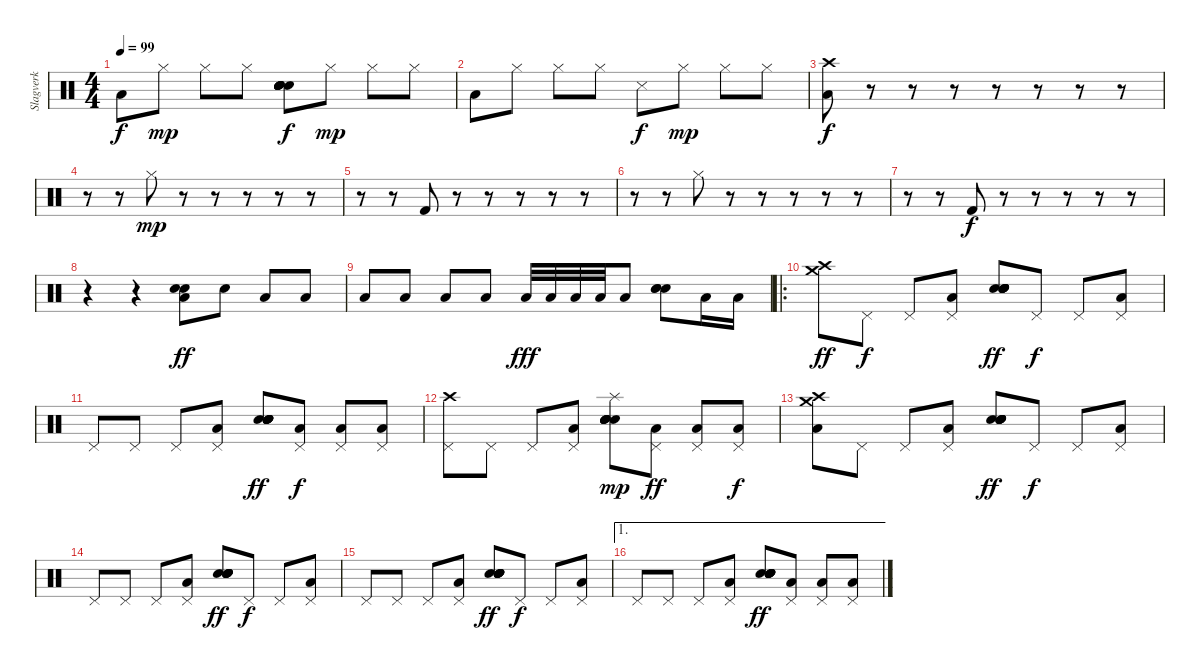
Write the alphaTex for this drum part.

\track ("Slagverk" "Slagverk") {instrument percussion}
\staff {score}
\articulation defaults
\ts (4 4)
\tempo 99
\clef neutral
\ks c "Low Tom (hit)".8{dy f} "Hi-Hat (closed)".8{dy mp} "Hi-Hat (closed)".8 "Hi-Hat (closed)".8
("Snare (hit) 2" "Snare (hit) 2" "Snare (hit) 2" "Snare (hit) 2" "Electric Snare (hit)" "Snare (hit) 2").8{dy f} "Hi-Hat (closed)".8{dy mp} "Hi-Hat (closed)".8 "Hi-Hat (closed)".8 |
"Low Tom (hit)".8 "Hi-Hat (closed)".8 "Hi-Hat (closed)".8 "Hi-Hat (closed)".8 "Snare (side stick) 3".8{dy f} "Hi-Hat (closed)".8{dy mp} "Hi-Hat (closed)".8 "Hi-Hat (closed)".8 |
("Crash high (hit)" "Low Floor Tom (hit)").8{dy f} r.8 r.8 r.8 r.8 r.8 r.8 r.8 |
r.8 r.8 "Hi-Hat (closed)".8{dy mp} r.8 r.8 r.8 r.8 r.8 |
r.8 r.8 "Kick (hit) 2".8 r.8 r.8 r.8 r.8 r.8 |
r.8 r.8 "Hi-Hat (closed)".8 r.8 r.8 r.8 r.8 r.8 |
r.8 r.8 "Kick (hit) 2".8{dy f} r.8 r.8 r.8 r.8 r.8 |
r.4 r.4 ("Snare (hit) 2" "Snare (hit) 2" "Low Floor Tom (hit)").8{dy ff} "Snare (hit) 2".8 "Low Floor Tom (hit)".8 "Low Floor Tom (hit)".8 |
"Low Floor Tom (hit)".8 "Low Floor Tom (hit)".8 "Low Floor Tom (hit)".8 "Low Floor Tom (hit)".8 "Low Floor Tom (hit)".32{dy fff} "Low Floor Tom (hit)".32 "Low Floor Tom (hit)".32 "Low Floor Tom (hit)".32 "Low Floor Tom (hit)".8 ("Snare (hit) 2" "Snare (hit) 2" "Electric Snare (hit)").8 "Low Floor Tom (hit)".16 "Low Floor Tom (hit)".16 |
\ro
("Crash medium (hit)" "Crash high (hit)").8{dy ff} "Pedal Hi-Hat (hit)".8{dy f} "Pedal Hi-Hat (hit)".8 ("Pedal Hi-Hat (hit)" "Low Floor Tom (hit)").8 ("Snare (hit) 2" "Snare (hit) 2" "Snare (hit) 2" "Snare (hit) 2" "Snare (hit) 2" "Electric Snare (hit)").8{dy ff} "Pedal Hi-Hat (hit)".8{dy f} "Pedal Hi-Hat (hit)".8 ("Pedal Hi-Hat (hit)" "Low Floor Tom (hit)").8 |
"Pedal Hi-Hat (hit)".8 "Pedal Hi-Hat (hit)".8 "Pedal Hi-Hat (hit)".8 ("Pedal Hi-Hat (hit)" "Low Floor Tom (hit)").8 ("Snare (hit) 2" "Snare (hit) 2" "Snare (hit) 2" "Snare (hit) 2" "Snare (hit) 2" "Electric Snare (hit)").8{dy ff} ("Pedal Hi-Hat (hit)" "Low Floor Tom (hit)").8{dy f} ("Pedal Hi-Hat (hit)" "Low Floor Tom (hit)").8 ("Pedal Hi-Hat (hit)" "Low Floor Tom (hit)").8 |
("Pedal Hi-Hat (hit)" "Crash high (hit)").8 "Pedal Hi-Hat (hit)".8 "Pedal Hi-Hat (hit)".8 ("Pedal Hi-Hat (hit)" "Low Floor Tom (hit)").8 ("Snare (hit) 2" "Snare (hit) 2" "Snare (hit) 2" "Electric Snare (hit)" "Snare (hit) 2" "Splash (hit)").8{dy mp} ("Pedal Hi-Hat (hit)" "Low Floor Tom (hit)").8{dy ff} ("Pedal Hi-Hat (hit)" "Low Floor Tom (hit)").8 ("Pedal Hi-Hat (hit)" "Low Floor Tom (hit)").8{dy f} |
("Low Floor Tom (hit)" "Crash high (hit)" "Crash medium (hit)").8 "Pedal Hi-Hat (hit)".8 "Pedal Hi-Hat (hit)".8 ("Pedal Hi-Hat (hit)" "Low Floor Tom (hit)").8 ("Snare (hit) 2" "Snare (hit) 2" "Snare (hit) 2" "Electric Snare (hit)" "Snare (hit) 2" "Snare (hit) 2").8{dy ff} "Pedal Hi-Hat (hit)".8{dy f} "Pedal Hi-Hat (hit)".8 ("Pedal Hi-Hat (hit)" "Low Floor Tom (hit)").8 |
"Pedal Hi-Hat (hit)".8 "Pedal Hi-Hat (hit)".8 "Pedal Hi-Hat (hit)".8 ("Pedal Hi-Hat (hit)" "Low Floor Tom (hit)").8 ("Snare (hit) 2" "Snare (hit) 2" "Snare (hit) 2" "Electric Snare (hit)" "Snare (hit) 2" "Snare (hit) 2").8{dy ff} "Pedal Hi-Hat (hit)".8{dy f} "Pedal Hi-Hat (hit)".8 ("Pedal Hi-Hat (hit)" "Low Floor Tom (hit)").8 |
"Pedal Hi-Hat (hit)".8 "Pedal Hi-Hat (hit)".8 "Pedal Hi-Hat (hit)".8 ("Pedal Hi-Hat (hit)" "Low Floor Tom (hit)").8 ("Snare (hit) 2" "Snare (hit) 2" "Snare (hit) 2" "Electric Snare (hit)" "Snare (hit) 2" "Snare (hit) 2").8{dy ff} "Pedal Hi-Hat (hit)".8{dy f} "Pedal Hi-Hat (hit)".8 ("Pedal Hi-Hat (hit)" "Low Floor Tom (hit)").8 |
\ae 1 "Pedal Hi-Hat (hit)".8 "Pedal Hi-Hat (hit)".8 "Pedal Hi-Hat (hit)".8
("Pedal Hi-Hat (hit)" "Low Floor Tom (hit)").8 ("Snare (hit) 2" "Snare (hit) 2" "Snare (hit) 2" "Electric Snare (hit)" "Snare (hit) 2" "Snare (hit) 2").8{dy ff} ("Pedal Hi-Hat (hit)" "Low Floor Tom (hit)").8 ("Pedal Hi-Hat (hit)" "Low Floor Tom (hit)").8 ("Pedal Hi-Hat (hit)" "Low Floor Tom (hit)").8
